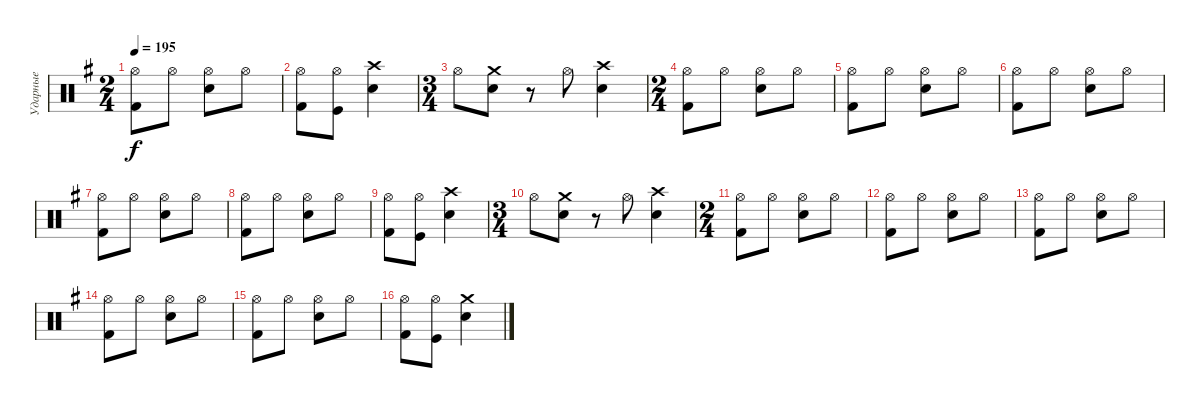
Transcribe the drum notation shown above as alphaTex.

\track ("Ударные" "Ударные") {instrument percussion}
\staff {score}
\articulation defaults
\ts (2 4)
\tempo 195
\clef neutral
\ks eminor
("Kick (hit) 2" "Hi-Hat (open)").8{dy f} "Hi-Hat (open)".8 ("Snare (hit) 2" "Hi-Hat (open)").8 "Hi-Hat (open)".8 |
("Kick (hit) 2" "Hi-Hat (open)").8 ("Hi-Hat (open)" "Kick (hit)").8 ("Snare (hit) 2" "Crash high (hit)").4 |
\ts (3 4)
"Hi-Hat (open)".8 ("Snare (hit) 2" "Crash medium (hit)").8 r.8 "Hi-Hat (open)".8 ("Snare (hit) 2" "Crash high (hit)").4 |
\ts (2 4)
("Kick (hit) 2" "Hi-Hat (open)").8 "Hi-Hat (open)".8 ("Snare (hit) 2" "Hi-Hat (open)").8 "Hi-Hat (open)".8 |
("Kick (hit) 2" "Hi-Hat (open)").8 "Hi-Hat (open)".8 ("Snare (hit) 2" "Hi-Hat (open)").8 "Hi-Hat (open)".8 |
("Kick (hit) 2" "Hi-Hat (open)").8 "Hi-Hat (open)".8 ("Snare (hit) 2" "Hi-Hat (open)").8 "Hi-Hat (open)".8 |
("Kick (hit) 2" "Hi-Hat (open)").8 "Hi-Hat (open)".8 ("Snare (hit) 2" "Hi-Hat (open)").8 "Hi-Hat (open)".8 |
("Kick (hit) 2" "Hi-Hat (open)").8 "Hi-Hat (open)".8 ("Snare (hit) 2" "Hi-Hat (open)").8 "Hi-Hat (open)".8 |
("Kick (hit) 2" "Hi-Hat (open)").8 ("Hi-Hat (open)" "Kick (hit)").8 ("Snare (hit) 2" "Crash high (hit)").4 |
\ts (3 4)
"Hi-Hat (open)".8 ("Snare (hit) 2" "Crash medium (hit)").8 r.8 "Hi-Hat (open)".8 ("Snare (hit) 2" "Crash high (hit)").4 |
\ts (2 4)
("Kick (hit) 2" "Hi-Hat (open)").8 "Hi-Hat (open)".8 ("Snare (hit) 2" "Hi-Hat (open)").8 "Hi-Hat (open)".8 |
("Kick (hit) 2" "Hi-Hat (open)").8 "Hi-Hat (open)".8 ("Snare (hit) 2" "Hi-Hat (open)").8 "Hi-Hat (open)".8 |
("Kick (hit) 2" "Hi-Hat (open)").8 "Hi-Hat (open)".8 ("Snare (hit) 2" "Hi-Hat (open)").8 "Hi-Hat (open)".8 |
("Kick (hit) 2" "Hi-Hat (open)").8 "Hi-Hat (open)".8 ("Snare (hit) 2" "Hi-Hat (open)").8 "Hi-Hat (open)".8 |
("Kick (hit) 2" "Hi-Hat (open)").8 "Hi-Hat (open)".8 ("Snare (hit) 2" "Hi-Hat (open)").8 "Hi-Hat (open)".8 |
("Kick (hit) 2" "Hi-Hat (open)").8 ("Hi-Hat (open)" "Kick (hit)").8 ("Snare (hit) 2" "Crash medium (hit)").4
